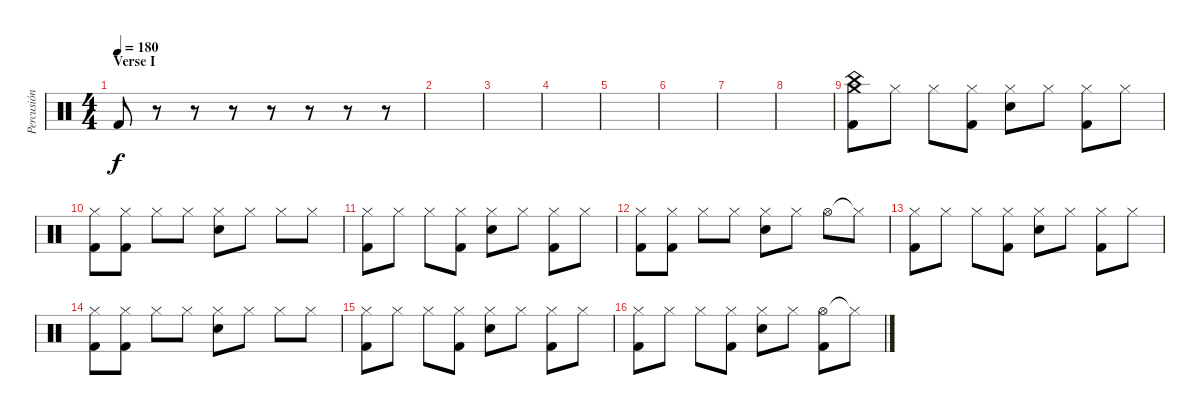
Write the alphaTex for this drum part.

\track ("Percusión" "Percusión") {instrument percussion}
\staff {score}
\articulation defaults
\ts (4 4)
\section ("" "Verse I")
\tempo 180
\clef neutral
\ks c "Kick (hit) 2".8{dy f}
r.8 r.8 r.8 r.8 r.8 r.8 r.8 |
|
|
|
|
|
|
|
("Crash medium (hit)" "China (hit)" "Kick (hit) 2").8 "Hi-Hat (closed)".8 "Hi-Hat (closed)".8 ("Hi-Hat (closed)" "Kick (hit) 2").8 ("Hi-Hat (closed)" "Snare (hit) 2").8 "Hi-Hat (closed)".8 ("Hi-Hat (closed)" "Kick (hit) 2").8 "Hi-Hat (closed)".8 |
("Hi-Hat (closed)" "Kick (hit) 2").8 ("Hi-Hat (closed)" "Kick (hit) 2").8 "Hi-Hat (closed)".8 "Hi-Hat (closed)".8 ("Hi-Hat (closed)" "Snare (hit) 2").8 "Hi-Hat (closed)".8 "Hi-Hat (closed)".8 "Hi-Hat (closed)".8 |
("Hi-Hat (closed)" "Kick (hit) 2").8 "Hi-Hat (closed)".8 "Hi-Hat (closed)".8 ("Hi-Hat (closed)" "Kick (hit) 2").8 ("Hi-Hat (closed)" "Snare (hit) 2").8 "Hi-Hat (closed)".8 ("Hi-Hat (closed)" "Kick (hit) 2").8 "Hi-Hat (closed)".8 |
("Hi-Hat (closed)" "Kick (hit) 2").8 ("Hi-Hat (closed)" "Kick (hit) 2").8 "Hi-Hat (closed)".8 "Hi-Hat (closed)".8 ("Hi-Hat (closed)" "Snare (hit) 2").8 "Hi-Hat (closed)".8 "Hi-Hat (open)".8 "Hi-Hat (closed)"{t}.8 |
("Hi-Hat (closed)" "Kick (hit) 2").8 "Hi-Hat (closed)".8 "Hi-Hat (closed)".8 ("Hi-Hat (closed)" "Kick (hit) 2").8 ("Hi-Hat (closed)" "Snare (hit) 2").8 "Hi-Hat (closed)".8 ("Hi-Hat (closed)" "Kick (hit) 2").8 "Hi-Hat (closed)".8 |
("Hi-Hat (closed)" "Kick (hit) 2").8 ("Hi-Hat (closed)" "Kick (hit) 2").8 "Hi-Hat (closed)".8 "Hi-Hat (closed)".8 ("Hi-Hat (closed)" "Snare (hit) 2").8 "Hi-Hat (closed)".8 "Hi-Hat (closed)".8 "Hi-Hat (closed)".8 |
("Hi-Hat (closed)" "Kick (hit) 2").8 "Hi-Hat (closed)".8 "Hi-Hat (closed)".8 ("Hi-Hat (closed)" "Kick (hit) 2").8 ("Hi-Hat (closed)" "Snare (hit) 2").8 "Hi-Hat (closed)".8 ("Hi-Hat (closed)" "Kick (hit) 2").8 "Hi-Hat (closed)".8 |
("Hi-Hat (closed)" "Kick (hit) 2").8 "Hi-Hat (closed)".8 "Hi-Hat (closed)".8 ("Hi-Hat (closed)" "Kick (hit) 2").8 ("Hi-Hat (closed)" "Snare (hit) 2").8 "Hi-Hat (closed)".8 ("Hi-Hat (open)" "Kick (hit) 2").8 "Hi-Hat (closed)"{t}.8
